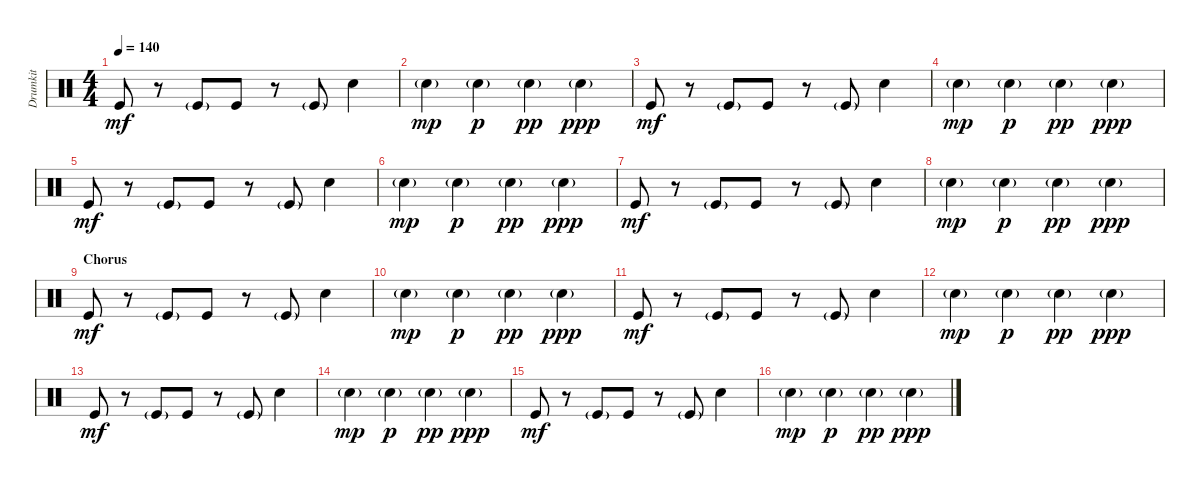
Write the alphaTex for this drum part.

\track ("Drumkit" "Drumkit") {instrument percussion}
\staff {score}
\articulation defaults
\ts (4 4)
\tempo 140
\clef neutral
\ks c "Kick (hit)".8{dy mf}
r.8 "Kick (hit)"{g}.8 "Kick (hit)".8 r.8 "Kick (hit)"{g}.8 "Snare (hit) 2".4 |
"Snare (hit) 2"{g}.4{dy mp} "Snare (hit) 2"{g}.4{dy p} "Snare (hit) 2"{g}.4{dy pp} "Snare (hit) 2"{g}.4{dy ppp} |
"Kick (hit)".8{dy mf} r.8 "Kick (hit)"{g}.8 "Kick (hit)".8 r.8 "Kick (hit)"{g}.8 "Snare (hit) 2".4 |
"Snare (hit) 2"{g}.4{dy mp} "Snare (hit) 2"{g}.4{dy p} "Snare (hit) 2"{g}.4{dy pp} "Snare (hit) 2"{g}.4{dy ppp} |
"Kick (hit)".8{dy mf} r.8 "Kick (hit)"{g}.8 "Kick (hit)".8 r.8 "Kick (hit)"{g}.8 "Snare (hit) 2".4 |
"Snare (hit) 2"{g}.4{dy mp} "Snare (hit) 2"{g}.4{dy p} "Snare (hit) 2"{g}.4{dy pp} "Snare (hit) 2"{g}.4{dy ppp} |
"Kick (hit)".8{dy mf} r.8 "Kick (hit)"{g}.8 "Kick (hit)".8 r.8 "Kick (hit)"{g}.8 "Snare (hit) 2".4 |
"Snare (hit) 2"{g}.4{dy mp} "Snare (hit) 2"{g}.4{dy p} "Snare (hit) 2"{g}.4{dy pp} "Snare (hit) 2"{g}.4{dy ppp} |
\section ("" "Chorus")
"Kick (hit)".8{dy mf} r.8 "Kick (hit)"{g}.8 "Kick (hit)".8 r.8 "Kick (hit)"{g}.8 "Snare (hit) 2".4 |
"Snare (hit) 2"{g}.4{dy mp} "Snare (hit) 2"{g}.4{dy p} "Snare (hit) 2"{g}.4{dy pp} "Snare (hit) 2"{g}.4{dy ppp} |
"Kick (hit)".8{dy mf} r.8 "Kick (hit)"{g}.8 "Kick (hit)".8 r.8 "Kick (hit)"{g}.8 "Snare (hit) 2".4 |
"Snare (hit) 2"{g}.4{dy mp} "Snare (hit) 2"{g}.4{dy p} "Snare (hit) 2"{g}.4{dy pp} "Snare (hit) 2"{g}.4{dy ppp} |
"Kick (hit)".8{dy mf} r.8 "Kick (hit)"{g}.8 "Kick (hit)".8 r.8 "Kick (hit)"{g}.8 "Snare (hit) 2".4 |
"Snare (hit) 2"{g}.4{dy mp} "Snare (hit) 2"{g}.4{dy p} "Snare (hit) 2"{g}.4{dy pp} "Snare (hit) 2"{g}.4{dy ppp} |
"Kick (hit)".8{dy mf} r.8 "Kick (hit)"{g}.8 "Kick (hit)".8 r.8 "Kick (hit)"{g}.8 "Snare (hit) 2".4 |
"Snare (hit) 2"{g}.4{dy mp} "Snare (hit) 2"{g}.4{dy p} "Snare (hit) 2"{g}.4{dy pp} "Snare (hit) 2"{g}.4{dy ppp}
